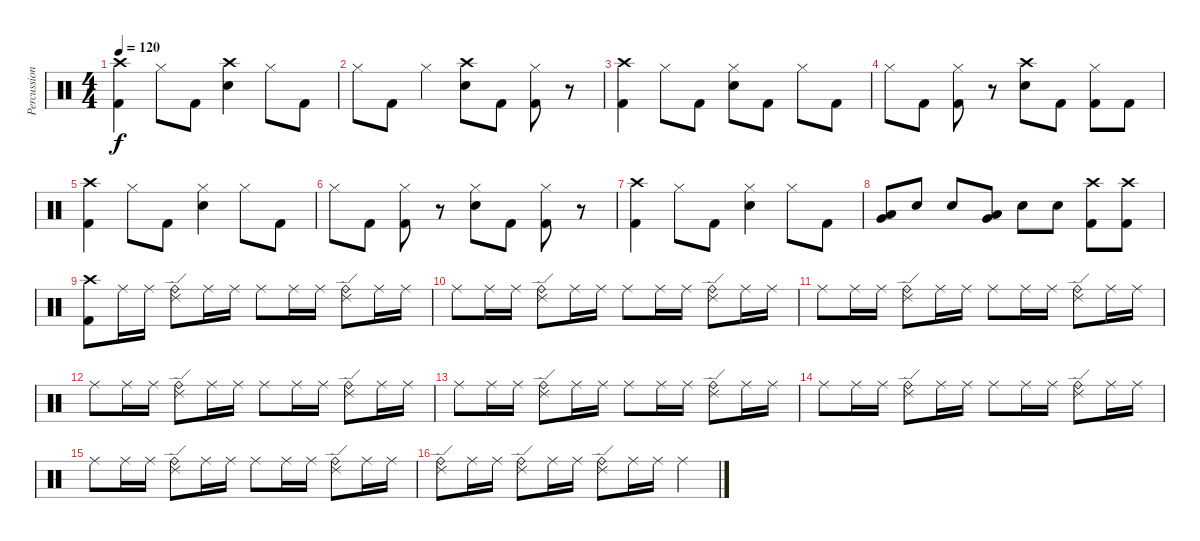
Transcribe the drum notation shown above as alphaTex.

\track ("Percussion" "Percussion") {instrument percussion}
\staff {score}
\articulation defaults
\ts (4 4)
\tempo 120
\clef neutral
\ks c
("Crash high (hit)" "Kick (hit) 2").4{dy f} "Hi-Hat (closed)".8 "Kick (hit) 2".8 ("Crash high (hit)" "Electric Snare (hit)").4 "Hi-Hat (closed)".8 "Kick (hit) 2".8 |
"Hi-Hat (closed)".8 "Kick (hit) 2".8 "Hi-Hat (closed)".4 ("Crash high (hit)" "Electric Snare (hit)").8 "Kick (hit) 2".8 ("Hi-Hat (closed)" "Kick (hit) 2").8 r.8 |
("Crash high (hit)" "Kick (hit) 2").4 "Hi-Hat (closed)".8 "Kick (hit) 2".8 ("Hi-Hat (closed)" "Electric Snare (hit)").8 "Kick (hit) 2".8 "Hi-Hat (closed)".8 "Kick (hit) 2".8 |
"Hi-Hat (closed)".8 "Kick (hit) 2".8 ("Hi-Hat (closed)" "Kick (hit) 2").8 r.8 ("Crash high (hit)" "Electric Snare (hit)").8 "Kick (hit) 2".8 ("Hi-Hat (closed)" "Kick (hit) 2").8 "Kick (hit) 2".8 |
("Crash high (hit)" "Kick (hit) 2").4 "Hi-Hat (closed)".8 "Kick (hit) 2".8 ("Hi-Hat (closed)" "Electric Snare (hit)").4 "Hi-Hat (closed)".8 "Kick (hit) 2".8 |
"Hi-Hat (closed)".8 "Kick (hit) 2".8 ("Hi-Hat (closed)" "Kick (hit) 2").8 r.8 ("Hi-Hat (closed)" "Electric Snare (hit)").8 "Kick (hit) 2".8 ("Hi-Hat (closed)" "Kick (hit) 2").8 r.8 |
("Crash high (hit)" "Kick (hit) 2").4 "Hi-Hat (closed)".8 "Kick (hit) 2".8 ("Hi-Hat (closed)" "Electric Snare (hit)").4 "Hi-Hat (closed)".8 "Kick (hit) 2".8 |
("Very Low Tom (hit)" "Low Floor Tom (hit)").8 "Electric Snare (hit)".8 "Electric Snare (hit)".8 ("Very Low Tom (hit)" "Low Floor Tom (hit)").8 "Electric Snare (hit)".8 "Electric Snare (hit)".8 ("Crash high (hit)" "Kick (hit) 2").8 ("Crash high (hit)" "Kick (hit) 2").8 |
("Crash high (hit)" "Kick (hit) 2").8 "Ride (middle)".16{volume 8} "Ride (middle)".16 ("Ride (edge) 2" "Ride (bell)").8 "Ride (middle)".16 "Ride (middle)".16 "Ride (middle)".8 "Ride (middle)".16 "Ride (middle)".16 ("Ride (edge) 2" "Ride (bell)").8 "Ride (middle)".16 "Ride (middle)".16 |
"Ride (middle)".8{volume 9} "Ride (middle)".16 "Ride (middle)".16 ("Ride (edge) 2" "Ride (bell)").8 "Ride (middle)".16 "Ride (middle)".16 "Ride (middle)".8 "Ride (middle)".16 "Ride (middle)".16 ("Ride (edge) 2" "Ride (bell)").8 "Ride (middle)".16 "Ride (middle)".16 |
"Ride (middle)".8{volume 10} "Ride (middle)".16 "Ride (middle)".16 ("Ride (edge) 2" "Ride (bell)").8 "Ride (middle)".16 "Ride (middle)".16 "Ride (middle)".8 "Ride (middle)".16 "Ride (middle)".16 ("Ride (edge) 2" "Ride (bell)").8 "Ride (middle)".16 "Ride (middle)".16 |
"Ride (middle)".8{volume 11} "Ride (middle)".16 "Ride (middle)".16 ("Ride (edge) 2" "Ride (bell)").8 "Ride (middle)".16 "Ride (middle)".16 "Ride (middle)".8 "Ride (middle)".16 "Ride (middle)".16 ("Ride (edge) 2" "Ride (bell)").8 "Ride (middle)".16 "Ride (middle)".16 |
"Ride (middle)".8{volume 12} "Ride (middle)".16 "Ride (middle)".16 ("Ride (edge) 2" "Ride (bell)").8 "Ride (middle)".16 "Ride (middle)".16 "Ride (middle)".8 "Ride (middle)".16 "Ride (middle)".16 ("Ride (edge) 2" "Ride (bell)").8 "Ride (middle)".16 "Ride (middle)".16 |
"Ride (middle)".8{volume 13} "Ride (middle)".16 "Ride (middle)".16 ("Ride (edge) 2" "Ride (bell)").8 "Ride (middle)".16 "Ride (middle)".16 "Ride (middle)".8 "Ride (middle)".16 "Ride (middle)".16 ("Ride (edge) 2" "Ride (bell)").8 "Ride (middle)".16 "Ride (middle)".16 |
"Ride (middle)".8 "Ride (middle)".16 "Ride (middle)".16 ("Ride (edge) 2" "Ride (bell)").8 "Ride (middle)".16 "Ride (middle)".16 "Ride (middle)".8 "Ride (middle)".16 "Ride (middle)".16 ("Ride (edge) 2" "Ride (bell)").8 "Ride (middle)".16 "Ride (middle)".16 |
("Ride (edge) 2" "Ride (bell)").8 "Ride (middle)".16 "Ride (middle)".16 ("Ride (edge) 2" "Ride (bell)").8 "Ride (middle)".16 "Ride (middle)".16 ("Ride (edge) 2" "Ride (bell)").8 "Ride (middle)".16 "Ride (middle)".16 "Ride (middle)".4
